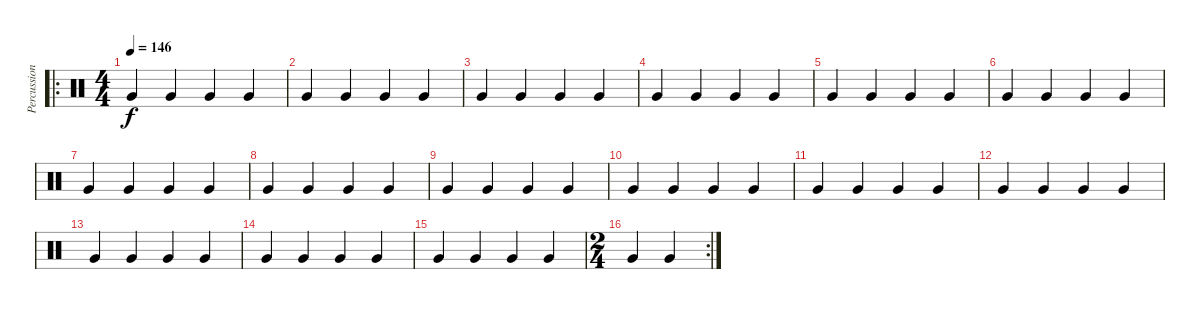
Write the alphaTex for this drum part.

\track ("Percussions" "Percussion") {instrument percussion}
\staff {score}
\articulation defaults
\ro
\ts (4 4)
\tempo 146
\clef neutral
\ks c "Very Low Tom (hit)".4{dy f} "Very Low Tom (hit)".4 "Very Low Tom (hit)".4 "Very Low Tom (hit)".4
|
"Very Low Tom (hit)".4 "Very Low Tom (hit)".4 "Very Low Tom (hit)".4 "Very Low Tom (hit)".4 |
"Very Low Tom (hit)".4 "Very Low Tom (hit)".4 "Very Low Tom (hit)".4 "Very Low Tom (hit)".4 |
"Very Low Tom (hit)".4 "Very Low Tom (hit)".4 "Very Low Tom (hit)".4 "Very Low Tom (hit)".4 |
"Very Low Tom (hit)".4 "Very Low Tom (hit)".4 "Very Low Tom (hit)".4 "Very Low Tom (hit)".4 |
"Very Low Tom (hit)".4 "Very Low Tom (hit)".4 "Very Low Tom (hit)".4 "Very Low Tom (hit)".4 |
"Very Low Tom (hit)".4 "Very Low Tom (hit)".4 "Very Low Tom (hit)".4 "Very Low Tom (hit)".4 |
"Very Low Tom (hit)".4 "Very Low Tom (hit)".4 "Very Low Tom (hit)".4 "Very Low Tom (hit)".4 |
"Very Low Tom (hit)".4 "Very Low Tom (hit)".4 "Very Low Tom (hit)".4 "Very Low Tom (hit)".4 |
"Very Low Tom (hit)".4 "Very Low Tom (hit)".4 "Very Low Tom (hit)".4 "Very Low Tom (hit)".4 |
"Very Low Tom (hit)".4 "Very Low Tom (hit)".4 "Very Low Tom (hit)".4 "Very Low Tom (hit)".4 |
"Very Low Tom (hit)".4 "Very Low Tom (hit)".4 "Very Low Tom (hit)".4 "Very Low Tom (hit)".4 |
"Very Low Tom (hit)".4 "Very Low Tom (hit)".4 "Very Low Tom (hit)".4 "Very Low Tom (hit)".4 |
"Very Low Tom (hit)".4 "Very Low Tom (hit)".4 "Very Low Tom (hit)".4 "Very Low Tom (hit)".4 |
"Very Low Tom (hit)".4 "Very Low Tom (hit)".4 "Very Low Tom (hit)".4 "Very Low Tom (hit)".4 |
\rc 2
\ts (2 4)
"Very Low Tom (hit)".4 "Very Low Tom (hit)".4
